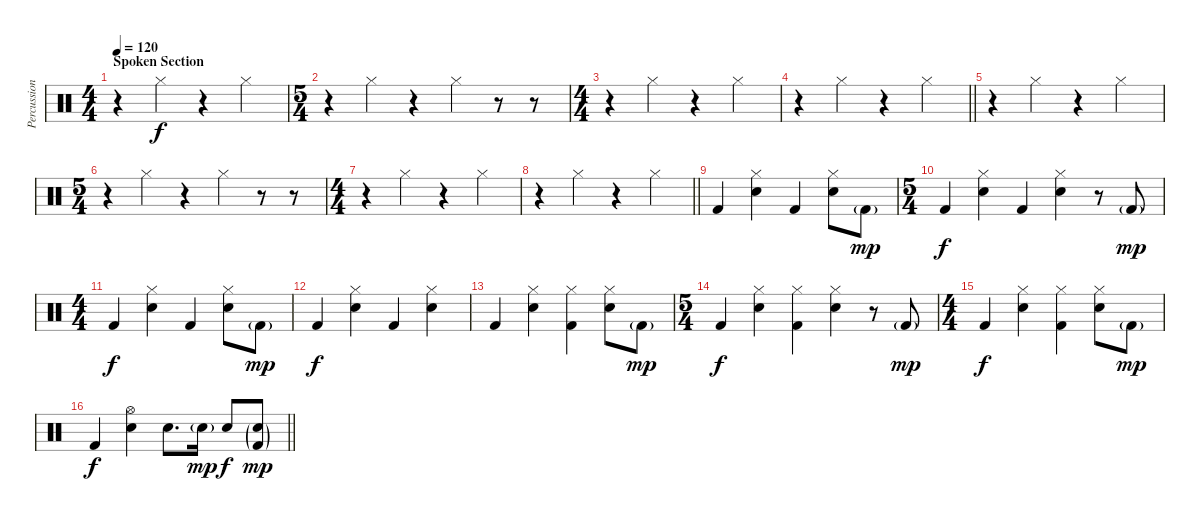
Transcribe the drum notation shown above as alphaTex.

\track ("Percussion" "Percussion") {instrument percussion}
\staff {score}
\articulation defaults
\ts (4 4)
\section ("" "Spoken Section")
\tempo 120
\clef neutral
\ks c
r.4{dy f} "Hi-Hat (closed)".4 r.4 "Hi-Hat (closed)".4 |
\ts (5 4)
r.4 "Hi-Hat (closed)".4 r.4 "Hi-Hat (closed)".4 r.8 r.8 |
\ts (4 4)
r.4 "Hi-Hat (closed)".4 r.4 "Hi-Hat (closed)".4 |
\barLineRight lightlight
r.4 "Hi-Hat (closed)".4 r.4 "Hi-Hat (closed)".4 |
r.4 "Hi-Hat (closed)".4 r.4 "Hi-Hat (closed)".4 |
\ts (5 4)
r.4 "Hi-Hat (closed)".4 r.4 "Hi-Hat (closed)".4 r.8 r.8 |
\ts (4 4)
r.4 "Hi-Hat (closed)".4 r.4 "Hi-Hat (closed)".4 |
\barLineRight lightlight
r.4 "Hi-Hat (closed)".4 r.4 "Hi-Hat (closed)".4 |
"Kick (hit) 2".4 ("Hi-Hat (closed)" "Snare (hit) 2").4 "Kick (hit) 2".4 ("Hi-Hat (closed)" "Snare (hit) 2").8 "Kick (hit) 2"{g}.8{dy mp} |
\ts (5 4)
"Kick (hit) 2".4{dy f} ("Hi-Hat (closed)" "Snare (hit) 2").4 "Kick (hit) 2".4 ("Hi-Hat (closed)" "Snare (hit) 2").4 r.8 "Kick (hit) 2"{g}.8{dy mp} |
\ts (4 4)
"Kick (hit) 2".4{dy f} ("Hi-Hat (closed)" "Snare (hit) 2").4 "Kick (hit) 2".4 ("Hi-Hat (closed)" "Snare (hit) 2").8 "Kick (hit) 2"{g}.8{dy mp} |
"Kick (hit) 2".4{dy f} ("Hi-Hat (closed)" "Snare (hit) 2").4 "Kick (hit) 2".4 ("Hi-Hat (closed)" "Snare (hit) 2").4 |
"Kick (hit) 2".4 ("Hi-Hat (closed)" "Snare (hit) 2").4 ("Hi-Hat (closed)" "Kick (hit) 2").4 ("Hi-Hat (closed)" "Snare (hit) 2").8 "Kick (hit) 2"{g}.8{dy mp} |
\ts (5 4)
"Kick (hit) 2".4{dy f} ("Hi-Hat (closed)" "Snare (hit) 2").4 ("Hi-Hat (closed)" "Kick (hit) 2").4 ("Hi-Hat (closed)" "Snare (hit) 2").4 r.8 "Kick (hit) 2"{g}.8{dy mp} |
\ts (4 4)
"Kick (hit) 2".4{dy f} ("Hi-Hat (closed)" "Snare (hit) 2").4 ("Hi-Hat (closed)" "Kick (hit) 2").4 ("Hi-Hat (closed)" "Snare (hit) 2").8 "Kick (hit) 2"{g}.8{dy mp} |
\barLineRight lightlight "Kick (hit) 2".4{dy f}
("Hi-Hat (open)" "Snare (hit) 2").4 "Snare (hit) 2".8{d} "Snare (hit) 2"{g}.16{dy mp} "Snare (hit) 2".8{dy f} ("Snare (hit) 2"{g} "Kick (hit) 2"{g}).8{dy mp}
